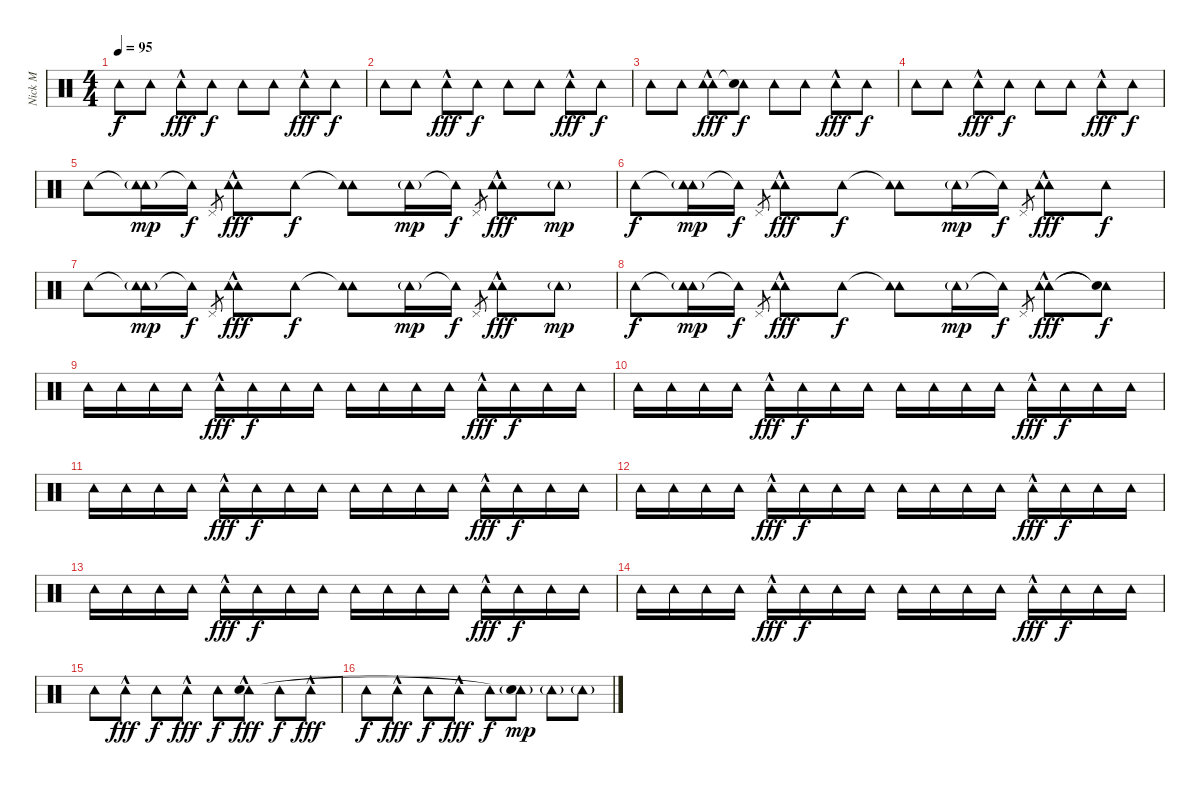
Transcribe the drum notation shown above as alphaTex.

\track ("Nick M" "Nick M") {instrument percussion}
\staff {score}
\articulation defaults
\ts (4 4)
\tempo 95
\clef neutral
\ks c "Tambourine (hit)".8{dy f} "Tambourine (hit)".8 "Tambourine (hit)"{hac}.8{dy fff} "Tambourine (hit)".8{dy f} "Tambourine (hit)".8 "Tambourine (hit)".8 "Tambourine (hit)"{hac}.8{dy fff} "Tambourine (hit)".8{dy f}
|
"Tambourine (hit)".8 "Tambourine (hit)".8 "Tambourine (hit)"{hac}.8{dy fff} "Tambourine (hit)".8{dy f} "Tambourine (hit)".8 "Tambourine (hit)".8 "Tambourine (hit)"{hac}.8{dy fff} "Tambourine (hit)".8{dy f} |
"Tambourine (hit)".8 "Tambourine (hit)".8 ("Tambourine (hit)"{hac} "Tambourine (hit)").8{dy fff} ("Tambourine (hit)" "Snare (hit)"{t}).8{dy f} "Tambourine (hit)".8 "Tambourine (hit)".8 "Tambourine (hit)"{hac}.8{dy fff} "Tambourine (hit)".8{dy f} |
"Tambourine (hit)".8 "Tambourine (hit)".8 "Tambourine (hit)"{hac}.8{dy fff} "Tambourine (hit)".8{dy f} "Tambourine (hit)".8 "Tambourine (hit)".8 "Tambourine (hit)"{hac}.8{dy fff} "Tambourine (hit)".8{dy f} |
"Tambourine (hit)".8 ("Tambourine (hit)"{t} "Tambourine (hit)"{g}).16{dy mp} "Tambourine (hit)"{t}.16{dy f} "Pedal Hi-Hat (hit)".8{gr} ("Tambourine (hit)" "Tambourine (hit)"{hac}).8{dy fff} "Tambourine (hit)".8{dy f} ("Tambourine (hit)"{t} "Tambourine (hit)").8 "Tambourine (hit)"{g}.16{dy mp} "Tambourine (hit)"{t}.16{dy f} "Pedal Hi-Hat (hit)".8{gr} ("Tambourine (hit)" "Tambourine (hit)"{hac}).8{dy fff} "Tambourine (hit)"{g}.8{dy mp} |
"Tambourine (hit)".8{dy f} ("Tambourine (hit)"{t} "Tambourine (hit)"{g}).16{dy mp} "Tambourine (hit)"{t}.16{dy f} "Pedal Hi-Hat (hit)".8{gr} ("Tambourine (hit)" "Tambourine (hit)"{hac}).8{dy fff} "Tambourine (hit)".8{dy f} ("Tambourine (hit)"{t} "Tambourine (hit)").8 "Tambourine (hit)"{g}.16{dy mp} "Tambourine (hit)"{t}.16{dy f} "Pedal Hi-Hat (hit)".8{gr} ("Tambourine (hit)" "Tambourine (hit)"{hac}).8{dy fff} "Tambourine (hit)".8{dy f} |
"Tambourine (hit)".8 ("Tambourine (hit)"{t} "Tambourine (hit)"{g}).16{dy mp} "Tambourine (hit)"{t}.16{dy f} "Pedal Hi-Hat (hit)".8{gr} ("Tambourine (hit)" "Tambourine (hit)"{hac}).8{dy fff} "Tambourine (hit)".8{dy f} ("Tambourine (hit)"{t} "Tambourine (hit)").8 "Tambourine (hit)"{g}.16{dy mp} "Tambourine (hit)"{t}.16{dy f} "Pedal Hi-Hat (hit)".8{gr} ("Tambourine (hit)" "Tambourine (hit)"{hac}).8{dy fff} "Tambourine (hit)"{g}.8{dy mp} |
"Tambourine (hit)".8{dy f} ("Tambourine (hit)"{t} "Tambourine (hit)"{g}).16{dy mp} "Tambourine (hit)"{t}.16{dy f} "Pedal Hi-Hat (hit)".8{gr} ("Tambourine (hit)" "Tambourine (hit)"{hac}).8{dy fff} "Tambourine (hit)".8{dy f} ("Tambourine (hit)"{t} "Tambourine (hit)").8 "Tambourine (hit)"{g}.16{dy mp} "Tambourine (hit)"{t}.16{dy f} "Pedal Hi-Hat (hit)".8{gr} ("Tambourine (hit)" "Tambourine (hit)"{hac}).8{dy fff} ("Tambourine (hit)"{t} "Snare (hit)"{t}).8{dy f} |
"Tambourine (hit)".16 "Tambourine (hit)".16 "Tambourine (hit)".16 "Tambourine (hit)".16 "Tambourine (hit)"{hac}.16{dy fff} "Tambourine (hit)".16{dy f} "Tambourine (hit)".16 "Tambourine (hit)".16 "Tambourine (hit)".16 "Tambourine (hit)".16 "Tambourine (hit)".16 "Tambourine (hit)".16 "Tambourine (hit)"{hac}.16{dy fff} "Tambourine (hit)".16{dy f} "Tambourine (hit)".16 "Tambourine (hit)".16 |
"Tambourine (hit)".16 "Tambourine (hit)".16 "Tambourine (hit)".16 "Tambourine (hit)".16 "Tambourine (hit)"{hac}.16{dy fff} "Tambourine (hit)".16{dy f} "Tambourine (hit)".16 "Tambourine (hit)".16 "Tambourine (hit)".16 "Tambourine (hit)".16 "Tambourine (hit)".16 "Tambourine (hit)".16 "Tambourine (hit)"{hac}.16{dy fff} "Tambourine (hit)".16{dy f} "Tambourine (hit)".16 "Tambourine (hit)".16 |
"Tambourine (hit)".16 "Tambourine (hit)".16 "Tambourine (hit)".16 "Tambourine (hit)".16 "Tambourine (hit)"{hac}.16{dy fff} "Tambourine (hit)".16{dy f} "Tambourine (hit)".16 "Tambourine (hit)".16 "Tambourine (hit)".16 "Tambourine (hit)".16 "Tambourine (hit)".16 "Tambourine (hit)".16 "Tambourine (hit)"{hac}.16{dy fff} "Tambourine (hit)".16{dy f} "Tambourine (hit)".16 "Tambourine (hit)".16 |
"Tambourine (hit)".16 "Tambourine (hit)".16 "Tambourine (hit)".16 "Tambourine (hit)".16 "Tambourine (hit)"{hac}.16{dy fff} "Tambourine (hit)".16{dy f} "Tambourine (hit)".16 "Tambourine (hit)".16 "Tambourine (hit)".16 "Tambourine (hit)".16 "Tambourine (hit)".16 "Tambourine (hit)".16 "Tambourine (hit)"{hac}.16{dy fff} "Tambourine (hit)".16{dy f} "Tambourine (hit)".16 "Tambourine (hit)".16 |
"Tambourine (hit)".16 "Tambourine (hit)".16 "Tambourine (hit)".16 "Tambourine (hit)".16 "Tambourine (hit)"{hac}.16{dy fff} "Tambourine (hit)".16{dy f} "Tambourine (hit)".16 "Tambourine (hit)".16 "Tambourine (hit)".16 "Tambourine (hit)".16 "Tambourine (hit)".16 "Tambourine (hit)".16 "Tambourine (hit)"{hac}.16{dy fff} "Tambourine (hit)".16{dy f} "Tambourine (hit)".16 "Tambourine (hit)".16 |
"Tambourine (hit)".16 "Tambourine (hit)".16 "Tambourine (hit)".16 "Tambourine (hit)".16 "Tambourine (hit)"{hac}.16{dy fff} "Tambourine (hit)".16{dy f} "Tambourine (hit)".16 "Tambourine (hit)".16 "Tambourine (hit)".16 "Tambourine (hit)".16 "Tambourine (hit)".16 "Tambourine (hit)".16 "Tambourine (hit)"{hac}.16{dy fff} "Tambourine (hit)".16{dy f} "Tambourine (hit)".16 "Tambourine (hit)".16 |
"Tambourine (hit)".8 "Tambourine (hit)"{hac}.8{dy fff} "Tambourine (hit)".8{dy f} "Tambourine (hit)"{hac}.8{dy fff} "Tambourine (hit)".8{dy f} ("Tambourine (hit)"{hac} "Snare (hit)").8{dy fff} "Tambourine (hit)".8{dy f} "Tambourine (hit)"{hac}.8{dy fff} |
"Tambourine (hit)".8{dy f} "Tambourine (hit)"{hac}.8{dy fff} "Tambourine (hit)".8{dy f} "Tambourine (hit)"{hac}.8{dy fff} "Tambourine (hit)".8{dy f} ("Tambourine (hit)"{g} "Snare (hit)"{t}).8{dy mp} "Tambourine (hit)"{g}.8 "Tambourine (hit)"{g}.8
